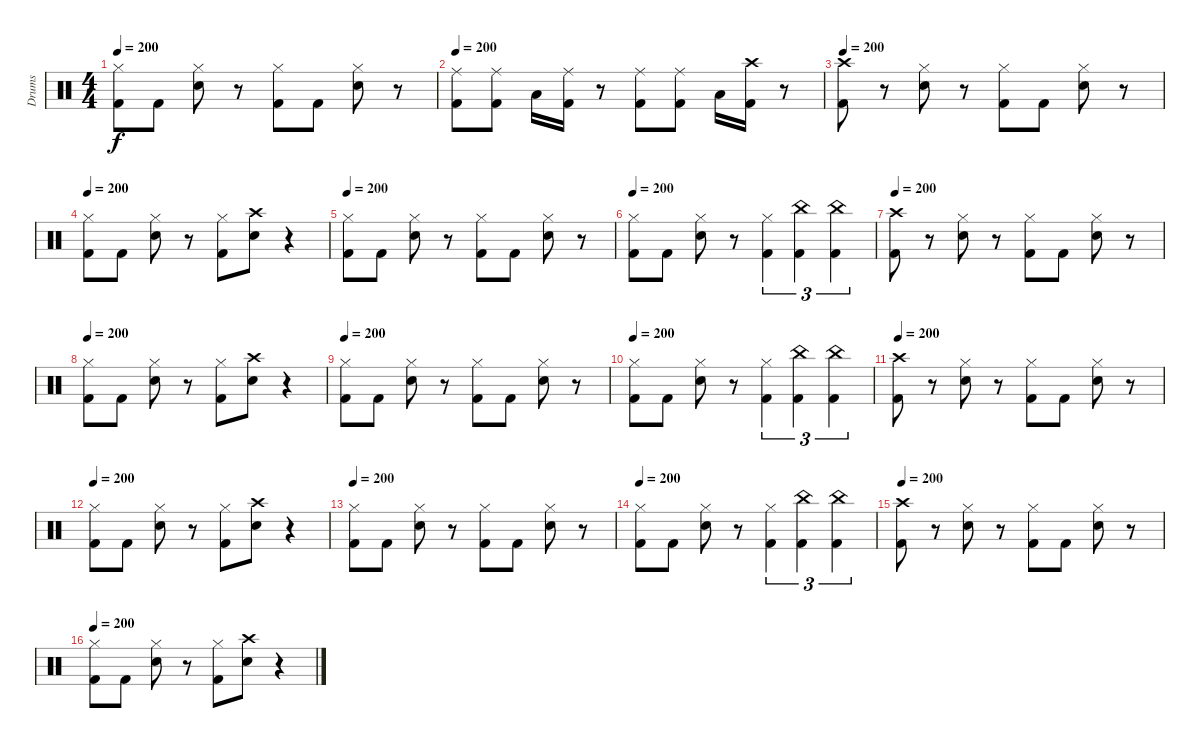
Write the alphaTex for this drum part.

\track ("Drums" "Drums") {instrument percussion}
\staff {score}
\articulation defaults
\ts (4 4)
\tempo 200
\clef neutral
\ks c
("Kick (hit) 2" "Hi-Hat (closed)").8{dy f} "Kick (hit) 2".8 ("Snare (hit) 2" "Hi-Hat (closed)").8 r.8 ("Kick (hit) 2" "Hi-Hat (closed)").8 "Kick (hit) 2".8 ("Snare (hit) 2" "Hi-Hat (closed)").8 r.8 |
\tempo 200
("Kick (hit) 2" "Ride (middle)").8 ("Kick (hit) 2" "Ride (middle)").8 "Low Tom (hit)".16 ("Ride (middle)" "Kick (hit) 2").16 r.8 ("Ride (middle)" "Kick (hit) 2").8 ("Ride (middle)" "Kick (hit) 2").8 "Low Tom (hit)".16 ("Crash high (hit)" "Kick (hit) 2").16 r.8 |
\tempo 200
("Kick (hit) 2" "Crash high (hit)").8 r.8 ("Hi-Hat (closed)" "Snare (hit) 2").8 r.8 ("Hi-Hat (closed)" "Kick (hit) 2").8 "Kick (hit) 2".8 ("Hi-Hat (closed)" "Snare (hit) 2").8 r.8 |
\tempo 200
("Kick (hit) 2" "Hi-Hat (closed)").8 "Kick (hit) 2".8 ("Snare (hit) 2" "Hi-Hat (closed)").8 r.8 ("Hi-Hat (closed)" "Kick (hit) 2").8 ("Crash high (hit)" "Snare (hit) 2").8 r.4 |
\tempo 200
("Kick (hit) 2" "Hi-Hat (closed)").8 "Kick (hit) 2".8 ("Snare (hit) 2" "Hi-Hat (closed)").8 r.8 ("Kick (hit) 2" "Hi-Hat (closed)").8 "Kick (hit) 2".8 ("Snare (hit) 2" "Hi-Hat (closed)").8 r.8 |
\tempo 200
("Kick (hit) 2" "Hi-Hat (closed)").8 "Kick (hit) 2".8 ("Snare (hit) 2" "Hi-Hat (closed)").8 r.8 ("Hi-Hat (closed)" "Kick (hit) 2").4{tu (3 2)} ("China (hit)" "Kick (hit) 2").4{tu (3 2)} ("China (hit)" "Kick (hit) 2").4{tu (3 2)} |
\tempo 200
("Kick (hit) 2" "Crash high (hit)").8 r.8 ("Hi-Hat (closed)" "Snare (hit) 2").8 r.8 ("Hi-Hat (closed)" "Kick (hit) 2").8 "Kick (hit) 2".8 ("Hi-Hat (closed)" "Snare (hit) 2").8 r.8 |
\tempo 200
("Kick (hit) 2" "Hi-Hat (closed)").8 "Kick (hit) 2".8 ("Snare (hit) 2" "Hi-Hat (closed)").8 r.8 ("Hi-Hat (closed)" "Kick (hit) 2").8 ("Crash high (hit)" "Snare (hit) 2").8 r.4 |
\tempo 200
("Kick (hit) 2" "Hi-Hat (closed)").8 "Kick (hit) 2".8 ("Snare (hit) 2" "Hi-Hat (closed)").8 r.8 ("Kick (hit) 2" "Hi-Hat (closed)").8 "Kick (hit) 2".8 ("Snare (hit) 2" "Hi-Hat (closed)").8 r.8 |
\tempo 200
("Kick (hit) 2" "Hi-Hat (closed)").8 "Kick (hit) 2".8 ("Snare (hit) 2" "Hi-Hat (closed)").8 r.8 ("Hi-Hat (closed)" "Kick (hit) 2").4{tu (3 2)} ("China (hit)" "Kick (hit) 2").4{tu (3 2)} ("China (hit)" "Kick (hit) 2").4{tu (3 2)} |
\tempo 200
("Kick (hit) 2" "Crash high (hit)").8 r.8 ("Hi-Hat (closed)" "Snare (hit) 2").8 r.8 ("Hi-Hat (closed)" "Kick (hit) 2").8 "Kick (hit) 2".8 ("Hi-Hat (closed)" "Snare (hit) 2").8 r.8 |
\tempo 200
("Kick (hit) 2" "Hi-Hat (closed)").8 "Kick (hit) 2".8 ("Snare (hit) 2" "Hi-Hat (closed)").8 r.8 ("Hi-Hat (closed)" "Kick (hit) 2").8 ("Crash high (hit)" "Snare (hit) 2").8 r.4 |
\tempo 200
("Kick (hit) 2" "Hi-Hat (closed)").8 "Kick (hit) 2".8 ("Snare (hit) 2" "Hi-Hat (closed)").8 r.8 ("Kick (hit) 2" "Hi-Hat (closed)").8 "Kick (hit) 2".8 ("Snare (hit) 2" "Hi-Hat (closed)").8 r.8 |
\tempo 200
("Kick (hit) 2" "Hi-Hat (closed)").8 "Kick (hit) 2".8 ("Snare (hit) 2" "Hi-Hat (closed)").8 r.8 ("Hi-Hat (closed)" "Kick (hit) 2").4{tu (3 2)} ("China (hit)" "Kick (hit) 2").4{tu (3 2)} ("China (hit)" "Kick (hit) 2").4{tu (3 2)} |
\tempo 200
("Kick (hit) 2" "Crash high (hit)").8 r.8 ("Hi-Hat (closed)" "Snare (hit) 2").8 r.8 ("Hi-Hat (closed)" "Kick (hit) 2").8 "Kick (hit) 2".8 ("Hi-Hat (closed)" "Snare (hit) 2").8 r.8 |
\tempo 200
("Kick (hit) 2" "Hi-Hat (closed)").8 "Kick (hit) 2".8 ("Snare (hit) 2" "Hi-Hat (closed)").8 r.8 ("Hi-Hat (closed)" "Kick (hit) 2").8 ("Crash high (hit)" "Snare (hit) 2").8 r.4
